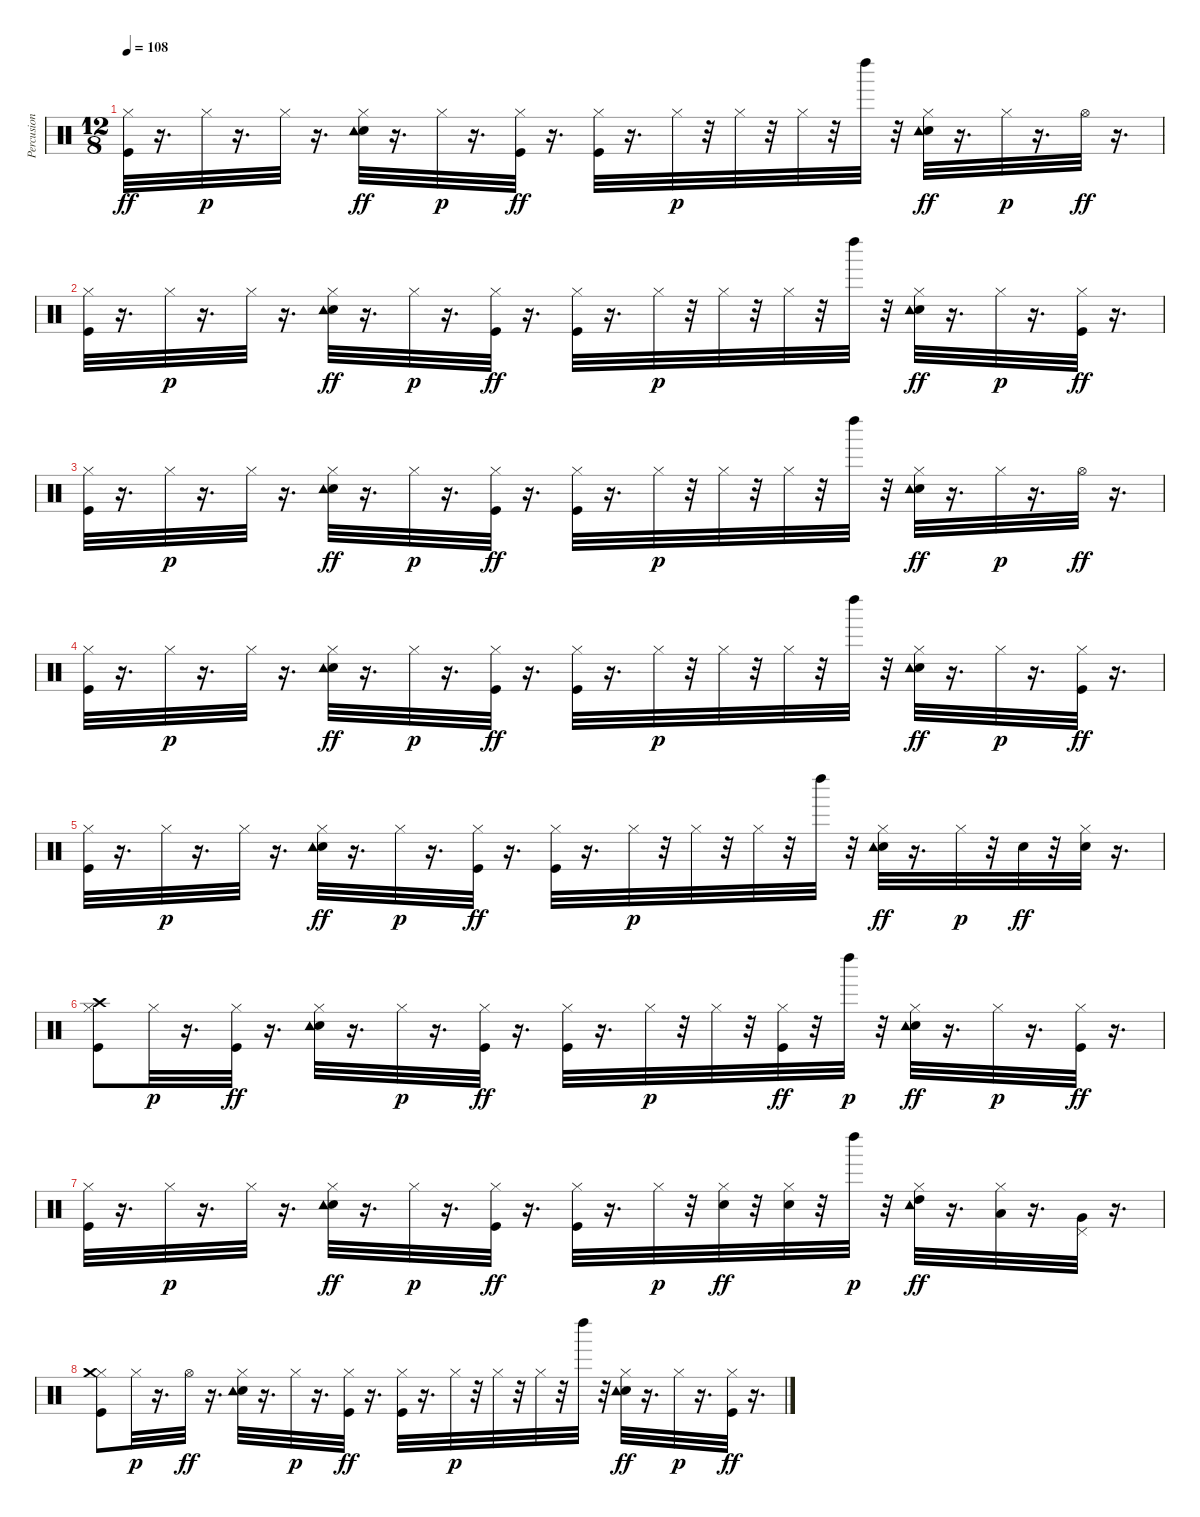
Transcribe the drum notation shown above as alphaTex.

\track ("Percusion (Matt)" "Percusion ") {instrument percussion}
\staff {score}
\articulation defaults
\ts (12 8)
\tempo 108
\clef neutral
\ks c
("Hi-Hat (closed)" "Kick (hit)").32{dy ff} r.16{d} "Hi-Hat (closed)".32{dy p} r.16{d} "Hi-Hat (closed)".32 r.16{d} ("Hi-Hat (closed)" "Electric Snare (hit)" "Tambourine (hit)").32{dy ff} r.16{d} "Hi-Hat (closed)".32{dy p} r.16{d} ("Hi-Hat (closed)" "Kick (hit)").32{dy ff} r.16{d} ("Hi-Hat (closed)" "Kick (hit)").32 r.16{d} "Hi-Hat (closed)".32{dy p} r.32 "Hi-Hat (closed)".32 r.32 "Hi-Hat (closed)".32 r.32 "Left Maraca (hit)".32 r.32 ("Hi-Hat (closed)" "Electric Snare (hit)" "Tambourine (hit)").32{dy ff} r.16{d} "Hi-Hat (closed)".32{dy p} r.16{d} "Hi-Hat (open)".32{dy ff} r.16{d} |
("Hi-Hat (closed)" "Kick (hit)").32 r.16{d} "Hi-Hat (closed)".32{dy p} r.16{d} "Hi-Hat (closed)".32 r.16{d} ("Hi-Hat (closed)" "Electric Snare (hit)" "Tambourine (hit)").32{dy ff} r.16{d} "Hi-Hat (closed)".32{dy p} r.16{d} ("Hi-Hat (closed)" "Kick (hit)").32{dy ff} r.16{d} ("Hi-Hat (closed)" "Kick (hit)").32 r.16{d} "Hi-Hat (closed)".32{dy p} r.32 "Hi-Hat (closed)".32 r.32 "Hi-Hat (closed)".32 r.32 "Left Maraca (hit)".32 r.32 ("Hi-Hat (closed)" "Electric Snare (hit)" "Tambourine (hit)").32{dy ff} r.16{d} "Hi-Hat (closed)".32{dy p} r.16{d} ("Hi-Hat (closed)" "Kick (hit)").32{dy ff} r.16{d} |
("Hi-Hat (closed)" "Kick (hit)").32 r.16{d} "Hi-Hat (closed)".32{dy p} r.16{d} "Hi-Hat (closed)".32 r.16{d} ("Hi-Hat (closed)" "Electric Snare (hit)" "Tambourine (hit)").32{dy ff} r.16{d} "Hi-Hat (closed)".32{dy p} r.16{d} ("Hi-Hat (closed)" "Kick (hit)").32{dy ff} r.16{d} ("Hi-Hat (closed)" "Kick (hit)").32 r.16{d} "Hi-Hat (closed)".32{dy p} r.32 "Hi-Hat (closed)".32 r.32 "Hi-Hat (closed)".32 r.32 "Left Maraca (hit)".32 r.32 ("Hi-Hat (closed)" "Electric Snare (hit)" "Tambourine (hit)").32{dy ff} r.16{d} "Hi-Hat (closed)".32{dy p} r.16{d} "Hi-Hat (open)".32{dy ff} r.16{d} |
("Hi-Hat (closed)" "Kick (hit)").32 r.16{d} "Hi-Hat (closed)".32{dy p} r.16{d} "Hi-Hat (closed)".32 r.16{d} ("Hi-Hat (closed)" "Electric Snare (hit)" "Tambourine (hit)").32{dy ff} r.16{d} "Hi-Hat (closed)".32{dy p} r.16{d} ("Hi-Hat (closed)" "Kick (hit)").32{dy ff} r.16{d} ("Hi-Hat (closed)" "Kick (hit)").32 r.16{d} "Hi-Hat (closed)".32{dy p} r.32 "Hi-Hat (closed)".32 r.32 "Hi-Hat (closed)".32 r.32 "Left Maraca (hit)".32 r.32 ("Hi-Hat (closed)" "Electric Snare (hit)" "Tambourine (hit)").32{dy ff} r.16{d} "Hi-Hat (closed)".32{dy p} r.16{d} ("Hi-Hat (closed)" "Kick (hit)").32{dy ff} r.16{d} |
("Hi-Hat (closed)" "Kick (hit)").32 r.16{d} "Hi-Hat (closed)".32{dy p} r.16{d} "Hi-Hat (closed)".32 r.16{d} ("Hi-Hat (closed)" "Electric Snare (hit)" "Tambourine (hit)").32{dy ff} r.16{d} "Hi-Hat (closed)".32{dy p} r.16{d} ("Hi-Hat (closed)" "Kick (hit)").32{dy ff} r.16{d} ("Hi-Hat (closed)" "Kick (hit)").32 r.16{d} "Hi-Hat (closed)".32{dy p} r.32 "Hi-Hat (closed)".32 r.32 "Hi-Hat (closed)".32 r.32 "Left Maraca (hit)".32 r.32 ("Hi-Hat (closed)" "Electric Snare (hit)" "Tambourine (hit)").32{dy ff} r.16{d} "Hi-Hat (closed)".32{dy p} r.32 "Snare (hit) 2".32{dy ff} r.32 ("Hi-Hat (closed)" "Electric Snare (hit)").32 r.16{d} |
("Hi-Hat (closed)" "Kick (hit)" "Crash high (hit)").8 "Hi-Hat (closed)".32{dy p} r.16{d} ("Hi-Hat (closed)" "Kick (hit)").32{dy ff} r.16{d} ("Hi-Hat (closed)" "Electric Snare (hit)" "Tambourine (hit)").32 r.16{d} "Hi-Hat (closed)".32{dy p} r.16{d} ("Hi-Hat (closed)" "Kick (hit)").32{dy ff} r.16{d} ("Hi-Hat (closed)" "Kick (hit)").32 r.16{d} "Hi-Hat (closed)".32{dy p} r.32 "Hi-Hat (closed)".32 r.32 ("Hi-Hat (closed)" "Kick (hit)").32{dy ff} r.32 "Left Maraca (hit)".32{dy p} r.32 ("Hi-Hat (closed)" "Electric Snare (hit)" "Tambourine (hit)").32{dy ff} r.16{d} "Hi-Hat (closed)".32{dy p} r.16{d} ("Hi-Hat (closed)" "Kick (hit)").32{dy ff} r.16{d} |
("Hi-Hat (closed)" "Kick (hit)").32 r.16{d} "Hi-Hat (closed)".32{dy p} r.16{d} "Hi-Hat (closed)".32 r.16{d} ("Hi-Hat (closed)" "Electric Snare (hit)" "Tambourine (hit)").32{dy ff} r.16{d} "Hi-Hat (closed)".32{dy p} r.16{d} ("Hi-Hat (closed)" "Kick (hit)").32{dy ff} r.16{d} ("Hi-Hat (closed)" "Kick (hit)").32 r.16{d} "Hi-Hat (closed)".32{dy p} r.32 ("Hi-Hat (closed)" "Electric Snare (hit)").32{dy ff} r.32 ("Hi-Hat (closed)" "Electric Snare (hit)").32 r.32 "Left Maraca (hit)".32{dy p} r.32 ("Hi-Hat (closed)" "Tambourine (hit)" "High Tom (hit)").32{dy ff} r.16{d} ("Hi-Hat (closed)" "Low Tom (hit)").32 r.16{d} ("Very Low Tom (hit)" "Pedal Hi-Hat (hit)").32 r.16{d} |
("Hi-Hat (closed)" "Kick (hit)" "Crash medium (hit)").8 "Hi-Hat (closed)".32{dy p} r.16{d} "Hi-Hat (open)".32{dy ff} r.16{d} ("Hi-Hat (closed)" "Electric Snare (hit)" "Tambourine (hit)").32 r.16{d} "Hi-Hat (closed)".32{dy p} r.16{d} ("Hi-Hat (closed)" "Kick (hit)").32{dy ff} r.16{d} ("Hi-Hat (closed)" "Kick (hit)").32 r.16{d} "Hi-Hat (closed)".32{dy p} r.32 "Hi-Hat (closed)".32 r.32 "Hi-Hat (closed)".32 r.32 "Left Maraca (hit)".32 r.32 ("Hi-Hat (closed)" "Electric Snare (hit)" "Tambourine (hit)").32{dy ff} r.16{d} "Hi-Hat (closed)".32{dy p} r.16{d} ("Hi-Hat (closed)" "Kick (hit)").32{dy ff} r.16{d}
